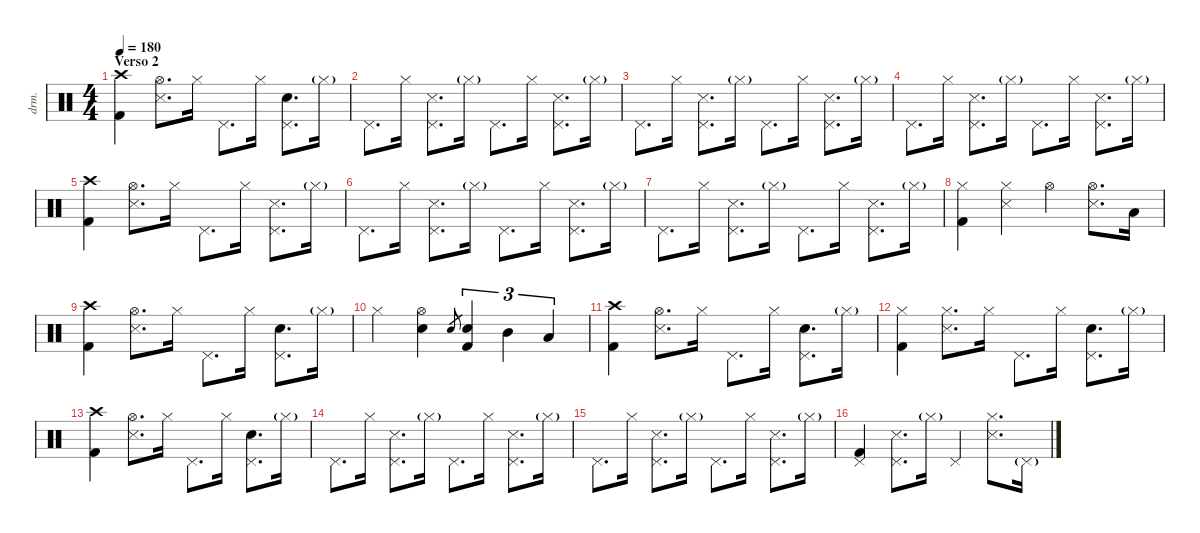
\defaultSystemsLayout 4
\hideDynamics
\bracketExtendMode nobrackets
\otherSystemsTrackNameOrientation horizontal
\track ("Drums" "drm.") {instrument percussion}
\staff {score}
\articulation defaults
\ts (4 4)
\section ("" "Verso 2")
\tempo 180
\clef neutral
\ks c
("Crash high (hit)" "Kick (hit) 2").4{dy f} ("Hi-Hat (open)" "Snare (side stick) 3").8{d} "Hi-Hat (closed)".16 "Pedal Hi-Hat (hit)".8{d} "Hi-Hat (closed)".16 ("Pedal Hi-Hat (hit)" "Snare (hit) 2").8{d} "Hi-Hat (closed)"{g}.16{dy mf} |
"Pedal Hi-Hat (hit)".8{d dy f} "Hi-Hat (closed)".16 ("Pedal Hi-Hat (hit)" "Snare (side stick) 3").8{d} "Hi-Hat (closed)"{g}.16{dy mf} "Pedal Hi-Hat (hit)".8{d dy f} "Hi-Hat (closed)".16 ("Pedal Hi-Hat (hit)" "Snare (side stick) 3").8{d} "Hi-Hat (closed)"{g}.16{dy mf} |
"Pedal Hi-Hat (hit)".8{d dy f} "Hi-Hat (closed)".16 ("Pedal Hi-Hat (hit)" "Snare (side stick) 3").8{d} "Hi-Hat (closed)"{g}.16{dy mf} "Pedal Hi-Hat (hit)".8{d dy f} "Hi-Hat (closed)".16 ("Pedal Hi-Hat (hit)" "Snare (side stick) 3").8{d} "Hi-Hat (closed)"{g}.16{dy mf} |
"Pedal Hi-Hat (hit)".8{d dy f} "Hi-Hat (closed)".16 ("Pedal Hi-Hat (hit)" "Snare (side stick) 3").8{d} "Hi-Hat (closed)"{g}.16{dy mf} "Pedal Hi-Hat (hit)".8{d dy f} "Hi-Hat (closed)".16 ("Pedal Hi-Hat (hit)" "Snare (side stick) 3").8{d} "Hi-Hat (closed)"{g}.16{dy mf} |
("Crash high (hit)" "Kick (hit) 2").4{dy f} ("Hi-Hat (open)" "Snare (side stick) 3").8{d} "Hi-Hat (closed)".16 "Pedal Hi-Hat (hit)".8{d} "Hi-Hat (closed)".16 ("Pedal Hi-Hat (hit)" "Snare (side stick) 3").8{d} "Hi-Hat (closed)"{g}.16{dy mf} |
"Pedal Hi-Hat (hit)".8{d dy f} "Hi-Hat (closed)".16 ("Pedal Hi-Hat (hit)" "Snare (side stick) 3").8{d} "Hi-Hat (closed)"{g}.16{dy mf} "Pedal Hi-Hat (hit)".8{d dy f} "Hi-Hat (closed)".16 ("Pedal Hi-Hat (hit)" "Snare (side stick) 3").8{d} "Hi-Hat (closed)"{g}.16{dy mf} |
"Pedal Hi-Hat (hit)".8{d dy f} "Hi-Hat (closed)".16 ("Pedal Hi-Hat (hit)" "Snare (side stick) 3").8{d} "Hi-Hat (closed)"{g}.16{dy mf} "Pedal Hi-Hat (hit)".8{d dy f} "Hi-Hat (closed)".16 ("Pedal Hi-Hat (hit)" "Snare (side stick) 3").8{d} "Hi-Hat (closed)"{g}.16{dy mf} |
("Hi-Hat (closed)" "Kick (hit) 2").4{dy f} ("Hi-Hat (closed)" "Snare (side stick) 3").4 "Hi-Hat (open)".4 ("Hi-Hat (open)" "Snare (side stick) 3").8{d} "Low Tom (hit)".16 |
("Crash high (hit)" "Kick (hit) 2").4 ("Hi-Hat (open)" "Snare (side stick) 3").8{d} "Hi-Hat (closed)".16 "Pedal Hi-Hat (hit)".8{d} "Hi-Hat (closed)".16 ("Pedal Hi-Hat (hit)" "Snare (hit) 2").8{d} "Hi-Hat (closed)"{g}.16{dy mf} |
"Hi-Hat (closed)".4{dy f} ("Hi-Hat (open)" "Snare (hit) 2").4 "Snare (hit) 2".8{gr dy mf} ("Snare (hit) 2" "Kick (hit) 2").4{tu (3 2) dy f} "Mid Tom (hit)".4{tu (3 2)} "Low Tom (hit)".4{tu (3 2)} |
("Crash high (hit)" "Kick (hit) 2").4 ("Hi-Hat (open)" "Snare (side stick) 3").8{d} "Hi-Hat (closed)".16 "Pedal Hi-Hat (hit)".8{d} "Hi-Hat (closed)".16 ("Pedal Hi-Hat (hit)" "Snare (hit) 2").8{d} "Hi-Hat (closed)"{g}.16{dy mf} |
("Hi-Hat (closed)" "Kick (hit) 2").4{dy f} ("Hi-Hat (closed)" "Snare (side stick) 3").8{d} "Hi-Hat (closed)".16 "Pedal Hi-Hat (hit)".8{d} "Hi-Hat (closed)".16 ("Pedal Hi-Hat (hit)" "Snare (hit) 2").8{d} "Hi-Hat (closed)"{g}.16{dy mf} |
("Crash high (hit)" "Kick (hit) 2").4{dy f} ("Hi-Hat (open)" "Snare (side stick) 3").8{d} "Hi-Hat (closed)".16 "Pedal Hi-Hat (hit)".8{d} "Hi-Hat (closed)".16 ("Pedal Hi-Hat (hit)" "Snare (hit) 2").8{d} "Hi-Hat (closed)"{g}.16{dy mf} |
"Pedal Hi-Hat (hit)".8{d dy f} "Hi-Hat (closed)".16 ("Pedal Hi-Hat (hit)" "Snare (side stick) 3").8{d} "Hi-Hat (closed)"{g}.16{dy mf} "Pedal Hi-Hat (hit)".8{d dy f} "Hi-Hat (closed)".16 ("Pedal Hi-Hat (hit)" "Snare (side stick) 3").8{d} "Hi-Hat (closed)"{g}.16{dy mf} |
"Pedal Hi-Hat (hit)".8{d dy f} "Hi-Hat (closed)".16 ("Pedal Hi-Hat (hit)" "Snare (side stick) 3").8{d} "Hi-Hat (closed)"{g}.16{dy mf} "Pedal Hi-Hat (hit)".8{d dy f} "Hi-Hat (closed)".16 ("Pedal Hi-Hat (hit)" "Snare (side stick) 3").8{d} "Hi-Hat (closed)"{g}.16{dy mf} |
("Pedal Hi-Hat (hit)" "Kick (hit) 2").4{dy f} ("Pedal Hi-Hat (hit)" "Snare (side stick) 3").8{d} "Hi-Hat (closed)"{g}.16{dy mf} "Pedal Hi-Hat (hit)".4{dy f} ("Hi-Hat (closed)" "Snare (side stick) 3").8{d} "Pedal Hi-Hat (hit)"{g}.16{dy mf}
